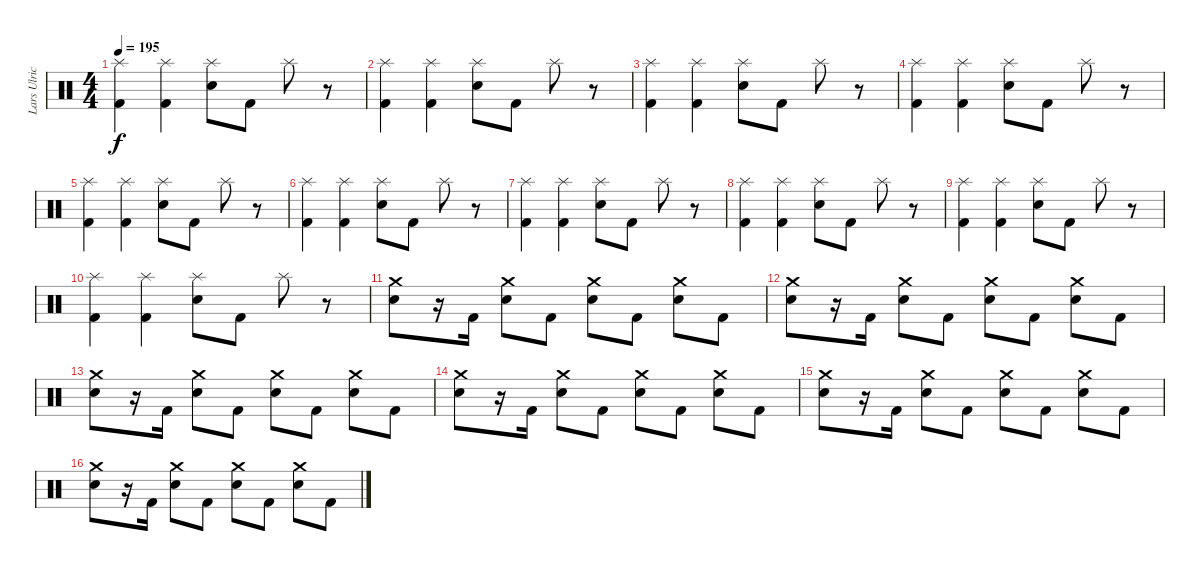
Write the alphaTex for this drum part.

\track ("Lars Ulrich" "Lars Ulric") {instrument percussion}
\staff {score}
\articulation defaults
\ts (4 4)
\tempo 195
\clef neutral
\ks c
("Splash (hit)" "Kick (hit) 2").4{dy f} ("Splash (hit)" "Kick (hit) 2").4 ("Splash (hit)" "Electric Snare (hit)").8 "Kick (hit) 2".8 "Splash (hit)".8 r.8 |
("Splash (hit)" "Kick (hit) 2").4 ("Splash (hit)" "Kick (hit) 2").4 ("Splash (hit)" "Electric Snare (hit)").8 "Kick (hit) 2".8 "Splash (hit)".8 r.8 |
("Splash (hit)" "Kick (hit) 2").4 ("Splash (hit)" "Kick (hit) 2").4 ("Splash (hit)" "Electric Snare (hit)").8 "Kick (hit) 2".8 "Splash (hit)".8 r.8 |
("Splash (hit)" "Kick (hit) 2").4 ("Splash (hit)" "Kick (hit) 2").4 ("Splash (hit)" "Electric Snare (hit)").8 "Kick (hit) 2".8 "Splash (hit)".8 r.8 |
("Splash (hit)" "Kick (hit) 2").4 ("Splash (hit)" "Kick (hit) 2").4 ("Splash (hit)" "Electric Snare (hit)").8 "Kick (hit) 2".8 "Splash (hit)".8 r.8 |
("Splash (hit)" "Kick (hit) 2").4 ("Splash (hit)" "Kick (hit) 2").4 ("Splash (hit)" "Electric Snare (hit)").8 "Kick (hit) 2".8 "Splash (hit)".8 r.8 |
("Splash (hit)" "Kick (hit) 2").4 ("Splash (hit)" "Kick (hit) 2").4 ("Splash (hit)" "Electric Snare (hit)").8 "Kick (hit) 2".8 "Splash (hit)".8 r.8 |
("Splash (hit)" "Kick (hit) 2").4 ("Splash (hit)" "Kick (hit) 2").4 ("Splash (hit)" "Electric Snare (hit)").8 "Kick (hit) 2".8 "Splash (hit)".8 r.8 |
("Splash (hit)" "Kick (hit) 2").4 ("Splash (hit)" "Kick (hit) 2").4 ("Splash (hit)" "Electric Snare (hit)").8 "Kick (hit) 2".8 "Splash (hit)".8 r.8 |
("Splash (hit)" "Kick (hit) 2").4 ("Splash (hit)" "Kick (hit) 2").4 ("Splash (hit)" "Electric Snare (hit)").8 "Kick (hit) 2".8 "Splash (hit)".8 r.8 |
("Crash medium (hit)" "Electric Snare (hit)").8 r.16 "Kick (hit) 2".16 ("Crash medium (hit)" "Electric Snare (hit)").8 "Kick (hit) 2".8 ("Crash medium (hit)" "Electric Snare (hit)").8 "Kick (hit) 2".8 ("Crash medium (hit)" "Electric Snare (hit)").8 "Kick (hit) 2".8 |
("Crash medium (hit)" "Electric Snare (hit)").8 r.16 "Kick (hit) 2".16 ("Crash medium (hit)" "Electric Snare (hit)").8 "Kick (hit) 2".8 ("Crash medium (hit)" "Electric Snare (hit)").8 "Kick (hit) 2".8 ("Crash medium (hit)" "Electric Snare (hit)").8 "Kick (hit) 2".8 |
("Crash medium (hit)" "Electric Snare (hit)").8 r.16 "Kick (hit) 2".16 ("Crash medium (hit)" "Electric Snare (hit)").8 "Kick (hit) 2".8 ("Crash medium (hit)" "Electric Snare (hit)").8 "Kick (hit) 2".8 ("Crash medium (hit)" "Electric Snare (hit)").8 "Kick (hit) 2".8 |
("Crash medium (hit)" "Electric Snare (hit)").8 r.16 "Kick (hit) 2".16 ("Crash medium (hit)" "Electric Snare (hit)").8 "Kick (hit) 2".8 ("Crash medium (hit)" "Electric Snare (hit)").8 "Kick (hit) 2".8 ("Crash medium (hit)" "Electric Snare (hit)").8 "Kick (hit) 2".8 |
("Crash medium (hit)" "Electric Snare (hit)").8 r.16 "Kick (hit) 2".16 ("Crash medium (hit)" "Electric Snare (hit)").8 "Kick (hit) 2".8 ("Crash medium (hit)" "Electric Snare (hit)").8 "Kick (hit) 2".8 ("Crash medium (hit)" "Electric Snare (hit)").8 "Kick (hit) 2".8 |
("Crash medium (hit)" "Electric Snare (hit)").8 r.16 "Kick (hit) 2".16 ("Crash medium (hit)" "Electric Snare (hit)").8 "Kick (hit) 2".8 ("Crash medium (hit)" "Electric Snare (hit)").8 "Kick (hit) 2".8 ("Crash medium (hit)" "Electric Snare (hit)").8 "Kick (hit) 2".8
